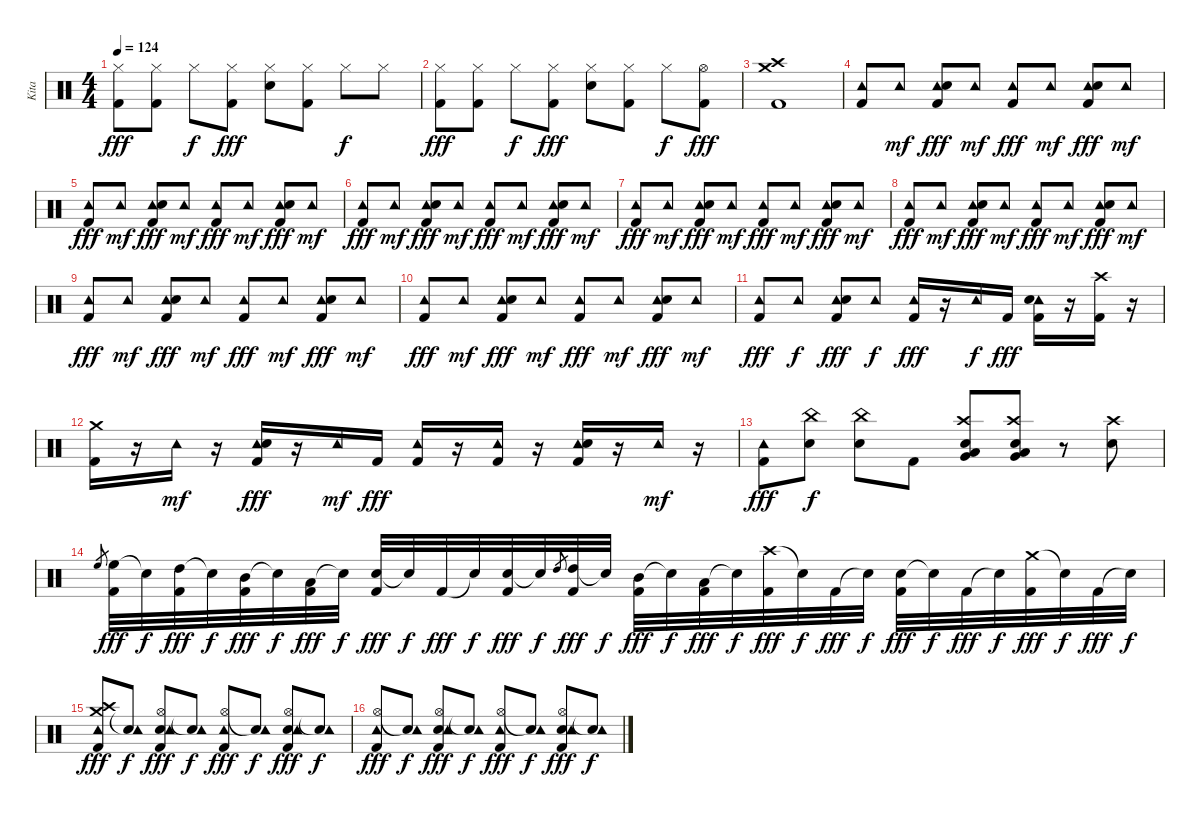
\track ("Kita" "Kita") {instrument percussion}
\staff {score}
\articulation defaults
\ts (4 4)
\tempo 124
\clef neutral
\ks c
("Hi-Hat (closed)" "Kick (hit) 2").8{dy fff} ("Hi-Hat (closed)" "Kick (hit) 2").8 "Hi-Hat (closed)".8{dy f} ("Hi-Hat (closed)" "Kick (hit) 2").8{dy fff} ("Hi-Hat (closed)" "Electric Snare (hit)").8 ("Hi-Hat (closed)" "Kick (hit) 2").8 "Hi-Hat (closed)".8{dy f} "Hi-Hat (closed)".8 |
("Hi-Hat (closed)" "Kick (hit) 2").8{dy fff} ("Hi-Hat (closed)" "Kick (hit) 2").8 "Hi-Hat (closed)".8{dy f} ("Hi-Hat (closed)" "Kick (hit) 2").8{dy fff} ("Hi-Hat (closed)" "Electric Snare (hit)").8 ("Hi-Hat (closed)" "Kick (hit) 2").8 "Hi-Hat (closed)".8{dy f} ("Hi-Hat (open)" "Kick (hit) 2").8{dy fff} |
("Crash high (hit)" "Kick (hit) 2" "Crash medium (hit)").1 |
("Tambourine (hit)" "Kick (hit) 2").8 "Tambourine (hit)".8{dy mf} ("Tambourine (hit)" "Electric Snare (hit)" "Kick (hit) 2").8{dy fff} "Tambourine (hit)".8{dy mf} ("Tambourine (hit)" "Kick (hit) 2").8{dy fff} "Tambourine (hit)".8{dy mf} ("Tambourine (hit)" "Electric Snare (hit)" "Kick (hit) 2").8{dy fff} "Tambourine (hit)".8{dy mf} |
("Tambourine (hit)" "Kick (hit) 2").8{dy fff} "Tambourine (hit)".8{dy mf} ("Tambourine (hit)" "Electric Snare (hit)" "Kick (hit) 2").8{dy fff} "Tambourine (hit)".8{dy mf} ("Tambourine (hit)" "Kick (hit) 2").8{dy fff} "Tambourine (hit)".8{dy mf} ("Tambourine (hit)" "Electric Snare (hit)" "Kick (hit) 2").8{dy fff} "Tambourine (hit)".8{dy mf} |
("Tambourine (hit)" "Kick (hit) 2").8{dy fff} "Tambourine (hit)".8{dy mf} ("Tambourine (hit)" "Electric Snare (hit)" "Kick (hit) 2").8{dy fff} "Tambourine (hit)".8{dy mf} ("Tambourine (hit)" "Kick (hit) 2").8{dy fff} "Tambourine (hit)".8{dy mf} ("Tambourine (hit)" "Electric Snare (hit)" "Kick (hit) 2").8{dy fff} "Tambourine (hit)".8{dy mf} |
("Tambourine (hit)" "Kick (hit) 2").8{dy fff} "Tambourine (hit)".8{dy mf} ("Tambourine (hit)" "Electric Snare (hit)" "Kick (hit) 2").8{dy fff} "Tambourine (hit)".8{dy mf} ("Tambourine (hit)" "Kick (hit) 2").8{dy fff} "Tambourine (hit)".8{dy mf} ("Tambourine (hit)" "Electric Snare (hit)" "Kick (hit) 2").8{dy fff} "Tambourine (hit)".8{dy mf} |
("Tambourine (hit)" "Kick (hit) 2").8{dy fff} "Tambourine (hit)".8{dy mf} ("Tambourine (hit)" "Electric Snare (hit)" "Kick (hit) 2").8{dy fff} "Tambourine (hit)".8{dy mf} ("Tambourine (hit)" "Kick (hit) 2").8{dy fff} "Tambourine (hit)".8{dy mf} ("Tambourine (hit)" "Electric Snare (hit)" "Kick (hit) 2").8{dy fff} "Tambourine (hit)".8{dy mf} |
("Tambourine (hit)" "Kick (hit) 2").8{dy fff} "Tambourine (hit)".8{dy mf} ("Tambourine (hit)" "Electric Snare (hit)" "Kick (hit) 2").8{dy fff} "Tambourine (hit)".8{dy mf} ("Tambourine (hit)" "Kick (hit) 2").8{dy fff} "Tambourine (hit)".8{dy mf} ("Tambourine (hit)" "Electric Snare (hit)" "Kick (hit) 2").8{dy fff} "Tambourine (hit)".8{dy mf} |
("Tambourine (hit)" "Kick (hit) 2").8{dy fff} "Tambourine (hit)".8{dy mf} ("Tambourine (hit)" "Electric Snare (hit)" "Kick (hit) 2").8{dy fff} "Tambourine (hit)".8{dy mf} ("Tambourine (hit)" "Kick (hit) 2").8{dy fff} "Tambourine (hit)".8{dy mf} ("Tambourine (hit)" "Electric Snare (hit)" "Kick (hit) 2").8{dy fff} "Tambourine (hit)".8{dy mf} |
("Tambourine (hit)" "Kick (hit) 2").8{dy fff} "Tambourine (hit)".8{dy f} ("Tambourine (hit)" "Electric Snare (hit)" "Kick (hit) 2").8{dy fff} "Tambourine (hit)".8{dy f} ("Tambourine (hit)" "Kick (hit) 2").16{dy fff} r.16 "Tambourine (hit)".16{dy f} "Kick (hit) 2".16{dy fff} ("Tambourine (hit)" "Electric Snare (hit)" "Kick (hit) 2").16 r.16 ("Crash high (hit)" "Kick (hit) 2").16 r.16 |
("Crash medium (hit)" "Kick (hit) 2").16 r.16 "Tambourine (hit)".16{dy mf} r.16 ("Tambourine (hit)" "Electric Snare (hit)" "Kick (hit) 2").16{dy fff} r.16 "Tambourine (hit)".16{dy mf} "Kick (hit) 2".16{dy fff} ("Tambourine (hit)" "Kick (hit) 2").16 r.16 ("Tambourine (hit)" "Kick (hit) 2").16 r.16 ("Tambourine (hit)" "Electric Snare (hit)" "Kick (hit) 2").16 r.16 "Tambourine (hit)".16{dy mf} r.16 |
("Kick (hit) 2" "Tambourine (hit)").8{dy fff} ("Electric Snare (hit)" "China (hit)").8{dy f} ("Electric Snare (hit)" "China (hit)").8 "Kick (hit) 2".8 ("Electric Snare (hit)" "Low Tom (hit)" "Very Low Tom (hit)" "Crash high (hit)").8 ("Electric Snare (hit)" "Low Tom (hit)" "Very Low Tom (hit)" "Crash high (hit)").8 r.8 ("Electric Snare (hit)" "Crash high (hit)").8 |
"High Floor Tom (hit)".8{gr} ("High Floor Tom (hit)" "Kick (hit) 2").32{dy fff} "Snare (hit)"{t}.32{dy f} ("High Tom (hit)" "Kick (hit) 2").32{dy fff} "Snare (hit)"{t}.32{dy f} ("Mid Tom (hit)" "Kick (hit) 2").32{dy fff} "Snare (hit)"{t}.32{dy f} ("Low Tom (hit)" "Kick (hit) 2").32{dy fff} "Snare (hit)"{t}.32{dy f} ("Electric Snare (hit)" "Kick (hit) 2").32{dy fff} "Snare (hit)"{t}.32{dy f} "Kick (hit) 2".32{dy fff} "Snare (hit)"{t}.32{dy f} ("Electric Snare (hit)" "Kick (hit) 2").32{dy fff} "Snare (hit)"{t}.32{dy f} "High Tom (hit)".8{gr} ("High Tom (hit)" "Kick (hit) 2").32{dy fff} "Snare (hit)"{t}.32{dy f} ("Mid Tom (hit)" "Kick (hit) 2").32{dy fff} "Snare (hit)"{t}.32{dy f} ("Low Tom (hit)" "Kick (hit) 2").32{dy fff} "Snare (hit)"{t}.32{dy f} ("Crash high (hit)" "Kick (hit) 2").32{dy fff} "Snare (hit)"{t}.32{dy f} "Kick (hit) 2".32{dy fff} "Snare (hit)"{t}.32{dy f} ("Electric Snare (hit)" "Kick (hit) 2").32{dy fff} "Snare (hit)"{t}.32{dy f} "Kick (hit) 2".32{dy fff} "Snare (hit)"{t}.32{dy f} ("Crash medium (hit)" "Kick (hit) 2").32{dy fff} "Snare (hit)"{t}.32{dy f} "Kick (hit) 2".32{dy fff} "Snare (hit)"{t}.32{dy f} |
("Crash high (hit)" "Kick (hit) 2" "Crash medium (hit)" "Tambourine (hit)").8{dy fff} ("Snare (hit)"{t} "Tambourine (hit)").8{dy f} ("Hi-Hat (open)" "Kick (hit) 2" "Electric Snare (hit)" "Tambourine (hit)").8{dy fff} ("Snare (hit)"{t} "Tambourine (hit)").8{dy f} ("Hi-Hat (open)" "Kick (hit) 2" "Tambourine (hit)").8{dy fff} ("Snare (hit)"{t} "Tambourine (hit)").8{dy f} ("Hi-Hat (open)" "Kick (hit) 2" "Electric Snare (hit)" "Tambourine (hit)").8{dy fff} ("Snare (hit)"{t} "Tambourine (hit)").8{dy f} |
("Hi-Hat (open)" "Kick (hit) 2" "Tambourine (hit)").8{dy fff} ("Snare (hit)"{t} "Tambourine (hit)").8{dy f} ("Hi-Hat (open)" "Kick (hit) 2" "Electric Snare (hit)" "Tambourine (hit)").8{dy fff} ("Snare (hit)"{t} "Tambourine (hit)").8{dy f} ("Hi-Hat (open)" "Kick (hit) 2" "Tambourine (hit)").8{dy fff} ("Snare (hit)"{t} "Tambourine (hit)").8{dy f} ("Hi-Hat (open)" "Kick (hit) 2" "Electric Snare (hit)" "Tambourine (hit)").8{dy fff} ("Snare (hit)"{t} "Tambourine (hit)").8{dy f}
